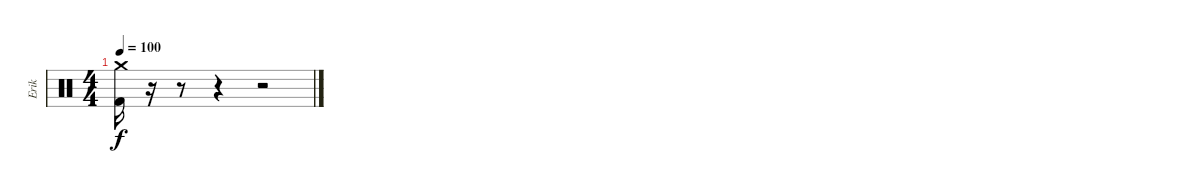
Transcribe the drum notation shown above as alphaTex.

\track ("Erik" "Erik") {instrument percussion}
\staff {score}
\articulation defaults
\ts (4 4)
\tempo 100
\clef neutral
\ks c
("Crash medium (hit)" "Kick (hit) 2").16{dy f} r.16 r.8 r.4 r.2
